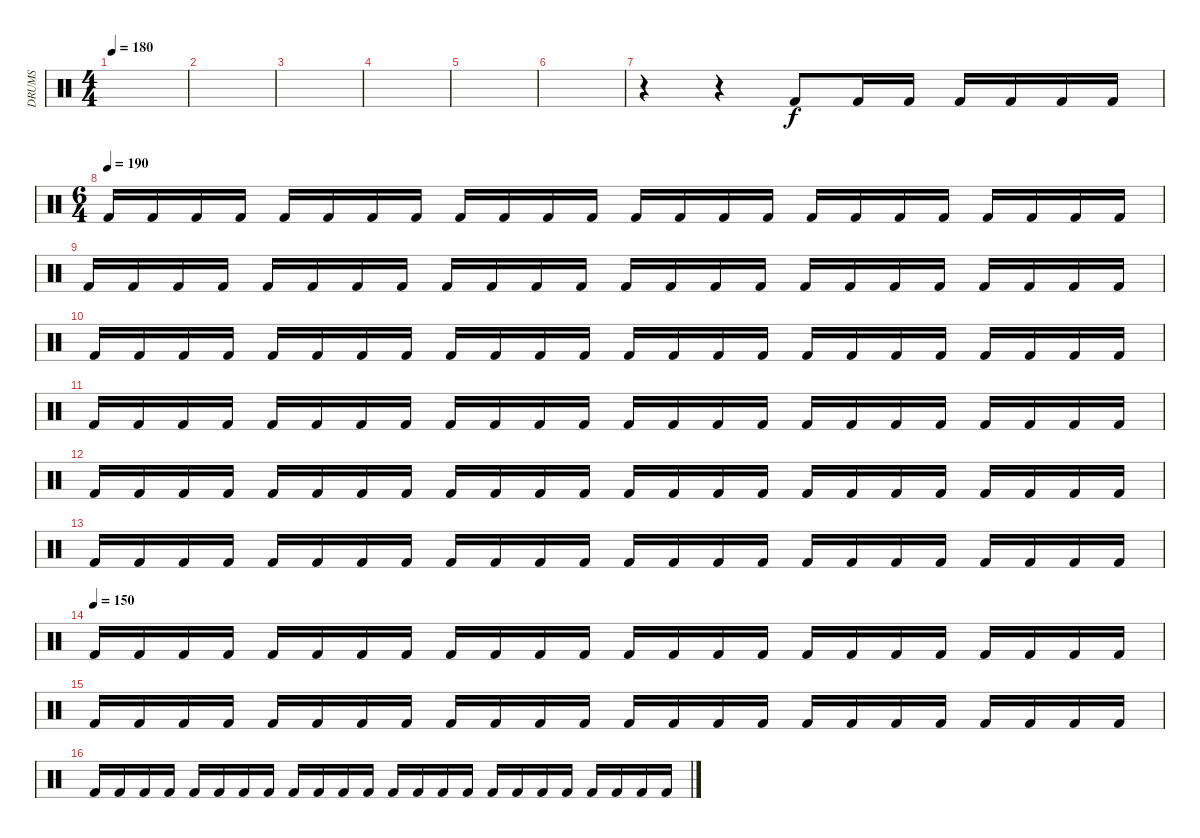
\track ("DRUMS " "DRUMS ") {instrument percussion}
\staff {score}
\articulation defaults
\ts (4 4)
\tempo 180
\clef neutral
\ks c
|
|
|
|
|
|
r.4 r.4 "Kick (hit) 2".8 "Kick (hit) 2".16 "Kick (hit) 2".16 "Kick (hit) 2".16 "Kick (hit) 2".16 "Kick (hit) 2".16 "Kick (hit) 2".16 |
\ts (6 4)
\tempo (190)
"Kick (hit) 2".16 "Kick (hit) 2".16 "Kick (hit) 2".16 "Kick (hit) 2".16 "Kick (hit) 2".16 "Kick (hit) 2".16 "Kick (hit) 2".16 "Kick (hit) 2".16 "Kick (hit) 2".16 "Kick (hit) 2".16 "Kick (hit) 2".16 "Kick (hit) 2".16 "Kick (hit) 2".16 "Kick (hit) 2".16 "Kick (hit) 2".16 "Kick (hit) 2".16 "Kick (hit) 2".16 "Kick (hit) 2".16 "Kick (hit) 2".16 "Kick (hit) 2".16 "Kick (hit) 2".16 "Kick (hit) 2".16 "Kick (hit) 2".16 "Kick (hit) 2".16 |
"Kick (hit) 2".16 "Kick (hit) 2".16 "Kick (hit) 2".16 "Kick (hit) 2".16 "Kick (hit) 2".16 "Kick (hit) 2".16 "Kick (hit) 2".16 "Kick (hit) 2".16 "Kick (hit) 2".16 "Kick (hit) 2".16 "Kick (hit) 2".16 "Kick (hit) 2".16 "Kick (hit) 2".16 "Kick (hit) 2".16 "Kick (hit) 2".16 "Kick (hit) 2".16 "Kick (hit) 2".16 "Kick (hit) 2".16 "Kick (hit) 2".16 "Kick (hit) 2".16 "Kick (hit) 2".16 "Kick (hit) 2".16 "Kick (hit) 2".16 "Kick (hit) 2".16 |
"Kick (hit) 2".16 "Kick (hit) 2".16 "Kick (hit) 2".16 "Kick (hit) 2".16 "Kick (hit) 2".16 "Kick (hit) 2".16 "Kick (hit) 2".16 "Kick (hit) 2".16 "Kick (hit) 2".16 "Kick (hit) 2".16 "Kick (hit) 2".16 "Kick (hit) 2".16 "Kick (hit) 2".16 "Kick (hit) 2".16 "Kick (hit) 2".16 "Kick (hit) 2".16 "Kick (hit) 2".16 "Kick (hit) 2".16 "Kick (hit) 2".16 "Kick (hit) 2".16 "Kick (hit) 2".16 "Kick (hit) 2".16 "Kick (hit) 2".16 "Kick (hit) 2".16 |
"Kick (hit) 2".16 "Kick (hit) 2".16 "Kick (hit) 2".16 "Kick (hit) 2".16 "Kick (hit) 2".16 "Kick (hit) 2".16 "Kick (hit) 2".16 "Kick (hit) 2".16 "Kick (hit) 2".16 "Kick (hit) 2".16 "Kick (hit) 2".16 "Kick (hit) 2".16 "Kick (hit) 2".16 "Kick (hit) 2".16 "Kick (hit) 2".16 "Kick (hit) 2".16 "Kick (hit) 2".16 "Kick (hit) 2".16 "Kick (hit) 2".16 "Kick (hit) 2".16 "Kick (hit) 2".16 "Kick (hit) 2".16 "Kick (hit) 2".16 "Kick (hit) 2".16 |
"Kick (hit) 2".16 "Kick (hit) 2".16 "Kick (hit) 2".16 "Kick (hit) 2".16 "Kick (hit) 2".16 "Kick (hit) 2".16 "Kick (hit) 2".16 "Kick (hit) 2".16 "Kick (hit) 2".16 "Kick (hit) 2".16 "Kick (hit) 2".16 "Kick (hit) 2".16 "Kick (hit) 2".16 "Kick (hit) 2".16 "Kick (hit) 2".16 "Kick (hit) 2".16 "Kick (hit) 2".16 "Kick (hit) 2".16 "Kick (hit) 2".16 "Kick (hit) 2".16 "Kick (hit) 2".16 "Kick (hit) 2".16 "Kick (hit) 2".16 "Kick (hit) 2".16 |
"Kick (hit) 2".16 "Kick (hit) 2".16 "Kick (hit) 2".16 "Kick (hit) 2".16 "Kick (hit) 2".16 "Kick (hit) 2".16 "Kick (hit) 2".16 "Kick (hit) 2".16 "Kick (hit) 2".16 "Kick (hit) 2".16 "Kick (hit) 2".16 "Kick (hit) 2".16 "Kick (hit) 2".16 "Kick (hit) 2".16 "Kick (hit) 2".16 "Kick (hit) 2".16 "Kick (hit) 2".16 "Kick (hit) 2".16 "Kick (hit) 2".16 "Kick (hit) 2".16 "Kick (hit) 2".16 "Kick (hit) 2".16 "Kick (hit) 2".16 "Kick (hit) 2".16 |
\tempo (150)
"Kick (hit) 2".16 "Kick (hit) 2".16 "Kick (hit) 2".16 "Kick (hit) 2".16 "Kick (hit) 2".16 "Kick (hit) 2".16 "Kick (hit) 2".16 "Kick (hit) 2".16 "Kick (hit) 2".16 "Kick (hit) 2".16 "Kick (hit) 2".16 "Kick (hit) 2".16 "Kick (hit) 2".16 "Kick (hit) 2".16 "Kick (hit) 2".16 "Kick (hit) 2".16 "Kick (hit) 2".16 "Kick (hit) 2".16 "Kick (hit) 2".16 "Kick (hit) 2".16 "Kick (hit) 2".16 "Kick (hit) 2".16 "Kick (hit) 2".16 "Kick (hit) 2".16 |
"Kick (hit) 2".16 "Kick (hit) 2".16 "Kick (hit) 2".16 "Kick (hit) 2".16 "Kick (hit) 2".16 "Kick (hit) 2".16 "Kick (hit) 2".16 "Kick (hit) 2".16 "Kick (hit) 2".16 "Kick (hit) 2".16 "Kick (hit) 2".16 "Kick (hit) 2".16 "Kick (hit) 2".16 "Kick (hit) 2".16 "Kick (hit) 2".16 "Kick (hit) 2".16 "Kick (hit) 2".16 "Kick (hit) 2".16 "Kick (hit) 2".16 "Kick (hit) 2".16 "Kick (hit) 2".16 "Kick (hit) 2".16 "Kick (hit) 2".16 "Kick (hit) 2".16 |
"Kick (hit) 2".16 "Kick (hit) 2".16 "Kick (hit) 2".16 "Kick (hit) 2".16 "Kick (hit) 2".16 "Kick (hit) 2".16 "Kick (hit) 2".16 "Kick (hit) 2".16 "Kick (hit) 2".16 "Kick (hit) 2".16 "Kick (hit) 2".16 "Kick (hit) 2".16 "Kick (hit) 2".16 "Kick (hit) 2".16 "Kick (hit) 2".16 "Kick (hit) 2".16 "Kick (hit) 2".16 "Kick (hit) 2".16 "Kick (hit) 2".16 "Kick (hit) 2".16 "Kick (hit) 2".16 "Kick (hit) 2".16 "Kick (hit) 2".16 "Kick (hit) 2".16
